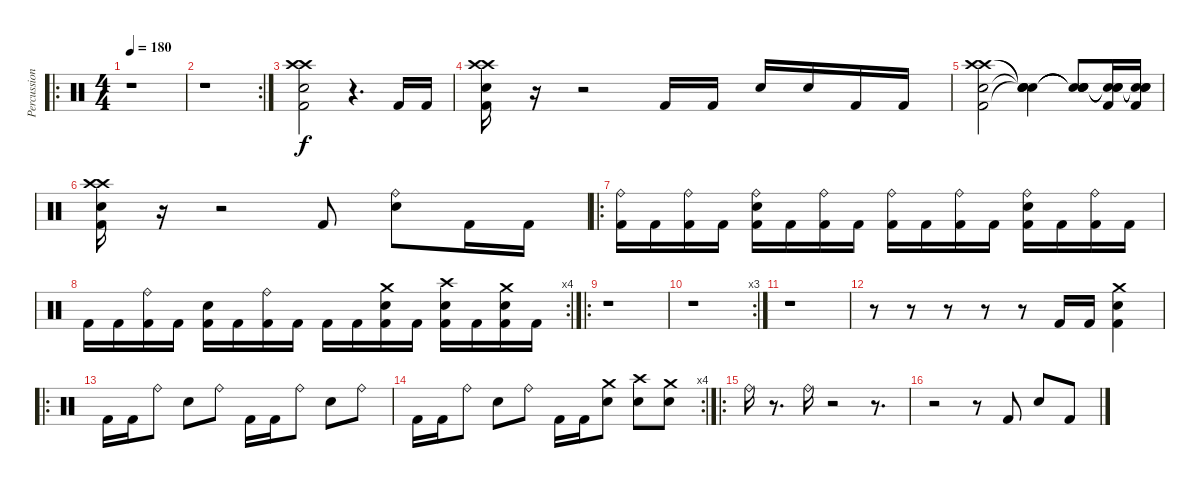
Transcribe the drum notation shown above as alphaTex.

\track ("Percussion" "Percussion") {instrument percussion}
\staff {score}
\articulation defaults
\ro
\ts (4 4)
\tempo 180
\clef neutral
\ks c
r.1{dy f} |
\rc 2
r.1 |
("Crash high (hit)" "Crash high (hit)" "Snare (hit) 2" "Kick (hit) 2").2 r.4{d} "Kick (hit) 2".16 "Kick (hit) 2".16 |
("Crash high (hit)" "Crash high (hit)" "Snare (hit) 2" "Kick (hit) 2").16 r.16 r.2 "Kick (hit) 2".16 "Kick (hit) 2".16 "Snare (hit) 2".16 "Snare (hit) 2".16 "Kick (hit) 2".16 "Kick (hit) 2".16 |
("Crash high (hit)" "Crash high (hit)" "Snare (hit) 2" "Kick (hit) 2").2 ("Snare (hit)"{t} "Snare (hit)"{t} "Snare (hit)"{t} "Snare (hit)"{t}).4 ("Snare (hit)"{t} "Snare (hit)"{t} "Snare (hit)"{t} "Snare (hit)"{t}).8 ("Snare (hit)"{t} "Snare (hit)"{t} "Snare (hit)"{t} "Kick (hit) 2").16 ("Snare (hit)"{t} "Snare (hit)"{t} "Snare (hit)"{t} "Kick (hit) 2").16 |
("Crash high (hit)" "Crash high (hit)" "Snare (hit) 2" "Kick (hit) 2").16 r.16 r.2 "Kick (hit) 2".8 ("Ride (bell)" "Snare (hit) 2").8 "Kick (hit) 2".16 "Kick (hit) 2".16 |
\ro
("Ride (bell)" "Kick (hit) 2").16 "Kick (hit) 2".16 ("Ride (bell)" "Kick (hit) 2").16 "Kick (hit) 2".16 ("Ride (bell)" "Snare (hit) 2" "Kick (hit) 2").16 "Kick (hit) 2".16 ("Ride (bell)" "Kick (hit) 2").16 "Kick (hit) 2".16 ("Ride (bell)" "Kick (hit) 2").16 "Kick (hit) 2".16 ("Ride (bell)" "Kick (hit) 2").16 "Kick (hit) 2".16 ("Ride (bell)" "Snare (hit) 2" "Kick (hit) 2").16 "Kick (hit) 2".16 ("Ride (bell)" "Kick (hit) 2").16 "Kick (hit) 2".16 |
\rc 4 "Kick (hit) 2".16 "Kick (hit) 2".16
("Ride (bell)" "Kick (hit) 2").16 "Kick (hit) 2".16 ("Snare (hit) 2" "Kick (hit) 2").16 "Kick (hit) 2".16 ("Ride (bell)" "Kick (hit) 2").16 "Kick (hit) 2".16 "Kick (hit) 2".16 "Kick (hit) 2".16 ("Crash medium (hit)" "Snare (hit) 2" "Kick (hit) 2").16 "Kick (hit) 2".16 ("Crash high (hit)" "Snare (hit) 2" "Kick (hit) 2").16 "Kick (hit) 2".16 ("Crash medium (hit)" "Snare (hit) 2" "Kick (hit) 2").16 "Kick (hit) 2".16 |
\ro
r.1 |
\rc 3
r.1 |
r.1 |
r.8 r.8 r.8 r.8 r.8 "Kick (hit) 2".16 "Kick (hit) 2".16 ("Crash medium (hit)" "Snare (hit) 2" "Kick (hit) 2").4 |
\ro "Kick (hit) 2".16 "Kick (hit) 2".16 "Ride (bell)".8 "Snare (hit) 2".8 "Ride (bell)".8 "Kick (hit) 2".16 "Kick (hit) 2".16 "Ride (bell)".8 "Snare (hit) 2".8 "Ride (bell)".8
|
\rc 4 "Kick (hit) 2".16 "Kick (hit) 2".16 "Ride (bell)".8 "Snare (hit) 2".8 "Ride (bell)".8 "Kick (hit) 2".16 "Kick (hit) 2".16
("Crash medium (hit)" "Snare (hit) 2").8 ("Crash high (hit)" "Snare (hit) 2").8 ("Crash medium (hit)" "Snare (hit) 2").8 |
\ro "Ride (bell)".16
r.8{d} "Ride (bell)".16 r.2 r.8{d} |
r.2 r.8 "Kick (hit) 2".8 "Snare (hit) 2".8 "Kick (hit) 2".8
